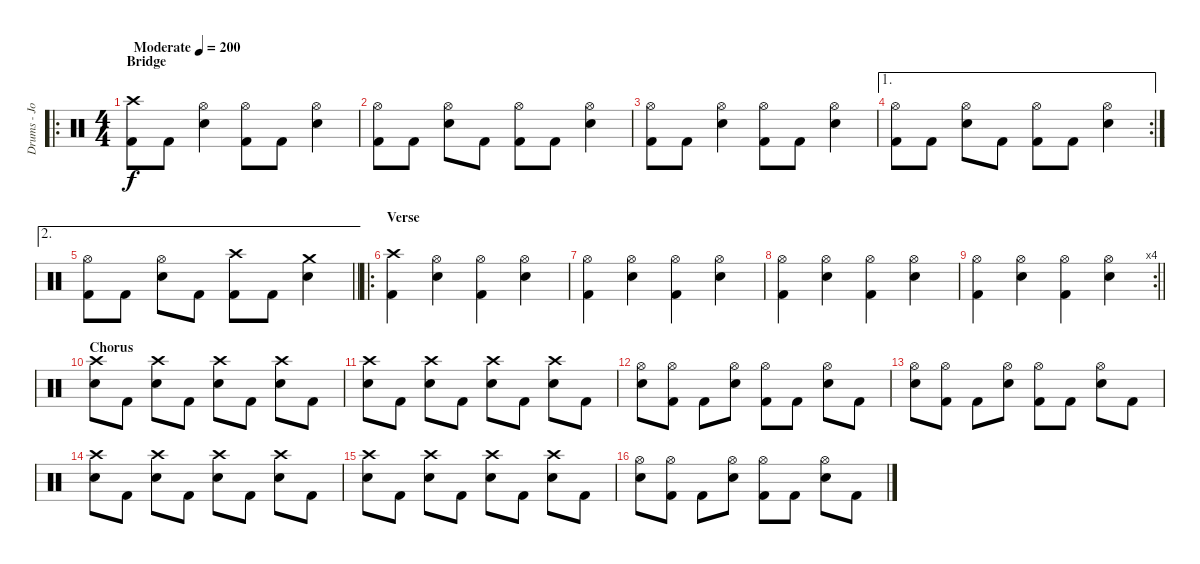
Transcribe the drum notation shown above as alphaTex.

\track ("Drums - John" "Drums - Jo") {instrument percussion}
\staff {score}
\articulation defaults
\ro
\ts (4 4)
\section ("" "Bridge")
\tempo (200 "Moderate")
\clef neutral
\ks c
("Crash high (hit)" "Kick (hit) 2").8{dy f} "Kick (hit) 2".8 ("Electric Snare (hit)" "Hi-Hat (open)").4 ("Kick (hit) 2" "Hi-Hat (open)").8 "Kick (hit) 2".8 ("Electric Snare (hit)" "Hi-Hat (open)").4 |
("Kick (hit) 2" "Hi-Hat (open)").8 "Kick (hit) 2".8 ("Electric Snare (hit)" "Hi-Hat (open)").8 "Kick (hit) 2".8 ("Kick (hit) 2" "Hi-Hat (open)").8 "Kick (hit) 2".8 ("Electric Snare (hit)" "Hi-Hat (open)").4 |
("Kick (hit) 2" "Hi-Hat (open)").8 "Kick (hit) 2".8 ("Electric Snare (hit)" "Hi-Hat (open)").4 ("Kick (hit) 2" "Hi-Hat (open)").8 "Kick (hit) 2".8 ("Electric Snare (hit)" "Hi-Hat (open)").4 |
\ae 1
\rc 2
("Kick (hit) 2" "Hi-Hat (open)").8 "Kick (hit) 2".8 ("Electric Snare (hit)" "Hi-Hat (open)").8 "Kick (hit) 2".8 ("Kick (hit) 2" "Hi-Hat (open)").8 "Kick (hit) 2".8 ("Electric Snare (hit)" "Hi-Hat (open)").4 |
\ae 2
\barLineRight lightlight
("Kick (hit) 2" "Hi-Hat (open)").8 "Kick (hit) 2".8 ("Electric Snare (hit)" "Hi-Hat (open)").8 "Kick (hit) 2".8 ("Crash high (hit)" "Kick (hit) 2").8 "Kick (hit) 2".8 ("Crash medium (hit)" "Electric Snare (hit)").4 |
\ro
\section ("" "Verse")
("Crash high (hit)" "Kick (hit) 2").4 ("Electric Snare (hit)" "Hi-Hat (open)").4 ("Kick (hit) 2" "Hi-Hat (open)").4 ("Electric Snare (hit)" "Hi-Hat (open)").4 |
("Kick (hit) 2" "Hi-Hat (open)").4 ("Electric Snare (hit)" "Hi-Hat (open)").4 ("Kick (hit) 2" "Hi-Hat (open)").4 ("Electric Snare (hit)" "Hi-Hat (open)").4 |
("Kick (hit) 2" "Hi-Hat (open)").4 ("Electric Snare (hit)" "Hi-Hat (open)").4 ("Kick (hit) 2" "Hi-Hat (open)").4 ("Electric Snare (hit)" "Hi-Hat (open)").4 |
\rc 4
\barLineRight lightlight
("Kick (hit) 2" "Hi-Hat (open)").4 ("Electric Snare (hit)" "Hi-Hat (open)").4 ("Kick (hit) 2" "Hi-Hat (open)").4 ("Electric Snare (hit)" "Hi-Hat (open)").4 |
\section ("" "Chorus")
("Crash high (hit)" "Electric Snare (hit)").8 "Kick (hit) 2".8 ("Crash high (hit)" "Electric Snare (hit)").8 "Kick (hit) 2".8 ("Crash high (hit)" "Electric Snare (hit)").8 "Kick (hit) 2".8 ("Crash high (hit)" "Electric Snare (hit)").8 "Kick (hit) 2".8 |
("Crash high (hit)" "Electric Snare (hit)").8 "Kick (hit) 2".8 ("Crash high (hit)" "Electric Snare (hit)").8 "Kick (hit) 2".8 ("Crash high (hit)" "Electric Snare (hit)").8 "Kick (hit) 2".8 ("Crash high (hit)" "Electric Snare (hit)").8 "Kick (hit) 2".8 |
("Hi-Hat (open)" "Electric Snare (hit)").8 ("Hi-Hat (open)" "Kick (hit) 2").8 "Kick (hit) 2".8 ("Hi-Hat (open)" "Electric Snare (hit)").8 ("Hi-Hat (open)" "Kick (hit) 2").8 "Kick (hit) 2".8 ("Hi-Hat (open)" "Electric Snare (hit)").8 "Kick (hit) 2".8 |
("Hi-Hat (open)" "Electric Snare (hit)").8 ("Hi-Hat (open)" "Kick (hit) 2").8 "Kick (hit) 2".8 ("Hi-Hat (open)" "Electric Snare (hit)").8 ("Hi-Hat (open)" "Kick (hit) 2").8 "Kick (hit) 2".8 ("Hi-Hat (open)" "Electric Snare (hit)").8 "Kick (hit) 2".8 |
("Crash high (hit)" "Electric Snare (hit)").8 "Kick (hit) 2".8 ("Crash high (hit)" "Electric Snare (hit)").8 "Kick (hit) 2".8 ("Crash high (hit)" "Electric Snare (hit)").8 "Kick (hit) 2".8 ("Crash high (hit)" "Electric Snare (hit)").8 "Kick (hit) 2".8 |
("Crash high (hit)" "Electric Snare (hit)").8 "Kick (hit) 2".8 ("Crash high (hit)" "Electric Snare (hit)").8 "Kick (hit) 2".8 ("Crash high (hit)" "Electric Snare (hit)").8 "Kick (hit) 2".8 ("Crash high (hit)" "Electric Snare (hit)").8 "Kick (hit) 2".8 |
("Hi-Hat (open)" "Electric Snare (hit)").8 ("Hi-Hat (open)" "Kick (hit) 2").8 "Kick (hit) 2".8 ("Hi-Hat (open)" "Electric Snare (hit)").8 ("Hi-Hat (open)" "Kick (hit) 2").8 "Kick (hit) 2".8 ("Hi-Hat (open)" "Electric Snare (hit)").8 "Kick (hit) 2".8
